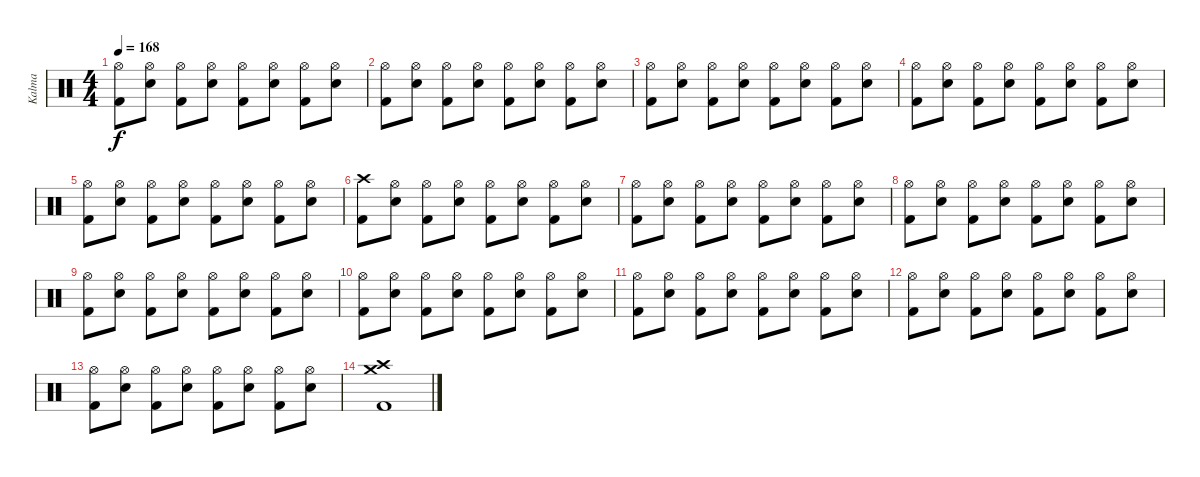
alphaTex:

\track ("Kalma" "Kalma") {instrument percussion}
\staff {score}
\articulation defaults
\ts (4 4)
\tempo 168
\clef neutral
\ks c
("Hi-Hat (open)" "Kick (hit) 2").8{dy f} ("Hi-Hat (open)" "Snare (hit) 2").8 ("Hi-Hat (open)" "Kick (hit) 2").8 ("Hi-Hat (open)" "Snare (hit) 2").8 ("Hi-Hat (open)" "Kick (hit) 2").8 ("Hi-Hat (open)" "Snare (hit) 2").8 ("Hi-Hat (open)" "Kick (hit) 2").8 ("Hi-Hat (open)" "Snare (hit) 2").8 |
("Hi-Hat (open)" "Kick (hit) 2").8 ("Hi-Hat (open)" "Snare (hit) 2").8 ("Hi-Hat (open)" "Kick (hit) 2").8 ("Hi-Hat (open)" "Snare (hit) 2").8 ("Hi-Hat (open)" "Kick (hit) 2").8 ("Hi-Hat (open)" "Snare (hit) 2").8 ("Hi-Hat (open)" "Kick (hit) 2").8 ("Hi-Hat (open)" "Snare (hit) 2").8 |
("Hi-Hat (open)" "Kick (hit) 2").8 ("Hi-Hat (open)" "Snare (hit) 2").8 ("Hi-Hat (open)" "Kick (hit) 2").8 ("Hi-Hat (open)" "Snare (hit) 2").8 ("Hi-Hat (open)" "Kick (hit) 2").8 ("Hi-Hat (open)" "Snare (hit) 2").8 ("Hi-Hat (open)" "Kick (hit) 2").8 ("Hi-Hat (open)" "Snare (hit) 2").8 |
("Hi-Hat (open)" "Kick (hit) 2").8 ("Hi-Hat (open)" "Snare (hit) 2").8 ("Hi-Hat (open)" "Kick (hit) 2").8 ("Hi-Hat (open)" "Snare (hit) 2").8 ("Hi-Hat (open)" "Kick (hit) 2").8 ("Hi-Hat (open)" "Snare (hit) 2").8 ("Hi-Hat (open)" "Kick (hit) 2").8 ("Hi-Hat (open)" "Snare (hit) 2").8 |
("Hi-Hat (open)" "Kick (hit) 2").8 ("Hi-Hat (open)" "Snare (hit) 2").8 ("Hi-Hat (open)" "Kick (hit) 2").8 ("Hi-Hat (open)" "Snare (hit) 2").8 ("Hi-Hat (open)" "Kick (hit) 2").8 ("Hi-Hat (open)" "Snare (hit) 2").8 ("Hi-Hat (open)" "Kick (hit) 2").8 ("Hi-Hat (open)" "Snare (hit) 2").8 |
("Crash high (hit)" "Kick (hit) 2").8 ("Hi-Hat (open)" "Snare (hit) 2").8 ("Hi-Hat (open)" "Kick (hit) 2").8 ("Hi-Hat (open)" "Snare (hit) 2").8 ("Hi-Hat (open)" "Kick (hit) 2").8 ("Hi-Hat (open)" "Snare (hit) 2").8 ("Hi-Hat (open)" "Kick (hit) 2").8 ("Hi-Hat (open)" "Snare (hit) 2").8 |
("Hi-Hat (open)" "Kick (hit) 2").8 ("Hi-Hat (open)" "Snare (hit) 2").8 ("Hi-Hat (open)" "Kick (hit) 2").8 ("Hi-Hat (open)" "Snare (hit) 2").8 ("Hi-Hat (open)" "Kick (hit) 2").8 ("Hi-Hat (open)" "Snare (hit) 2").8 ("Hi-Hat (open)" "Kick (hit) 2").8 ("Hi-Hat (open)" "Snare (hit) 2").8 |
("Hi-Hat (open)" "Kick (hit) 2").8 ("Hi-Hat (open)" "Snare (hit) 2").8 ("Hi-Hat (open)" "Kick (hit) 2").8 ("Hi-Hat (open)" "Snare (hit) 2").8 ("Hi-Hat (open)" "Kick (hit) 2").8 ("Hi-Hat (open)" "Snare (hit) 2").8 ("Hi-Hat (open)" "Kick (hit) 2").8 ("Hi-Hat (open)" "Snare (hit) 2").8 |
("Hi-Hat (open)" "Kick (hit) 2").8 ("Hi-Hat (open)" "Snare (hit) 2").8 ("Hi-Hat (open)" "Kick (hit) 2").8 ("Hi-Hat (open)" "Snare (hit) 2").8 ("Hi-Hat (open)" "Kick (hit) 2").8 ("Hi-Hat (open)" "Snare (hit) 2").8 ("Hi-Hat (open)" "Kick (hit) 2").8 ("Hi-Hat (open)" "Snare (hit) 2").8 |
("Hi-Hat (open)" "Kick (hit) 2").8 ("Hi-Hat (open)" "Snare (hit) 2").8 ("Hi-Hat (open)" "Kick (hit) 2").8 ("Hi-Hat (open)" "Snare (hit) 2").8 ("Hi-Hat (open)" "Kick (hit) 2").8 ("Hi-Hat (open)" "Snare (hit) 2").8 ("Hi-Hat (open)" "Kick (hit) 2").8 ("Hi-Hat (open)" "Snare (hit) 2").8 |
("Hi-Hat (open)" "Kick (hit) 2").8 ("Hi-Hat (open)" "Snare (hit) 2").8 ("Hi-Hat (open)" "Kick (hit) 2").8 ("Hi-Hat (open)" "Snare (hit) 2").8 ("Hi-Hat (open)" "Kick (hit) 2").8 ("Hi-Hat (open)" "Snare (hit) 2").8 ("Hi-Hat (open)" "Kick (hit) 2").8 ("Hi-Hat (open)" "Snare (hit) 2").8 |
("Hi-Hat (open)" "Kick (hit) 2").8 ("Hi-Hat (open)" "Snare (hit) 2").8 ("Hi-Hat (open)" "Kick (hit) 2").8 ("Hi-Hat (open)" "Snare (hit) 2").8 ("Hi-Hat (open)" "Kick (hit) 2").8 ("Hi-Hat (open)" "Snare (hit) 2").8 ("Hi-Hat (open)" "Kick (hit) 2").8 ("Hi-Hat (open)" "Snare (hit) 2").8 |
("Hi-Hat (open)" "Kick (hit) 2").8 ("Hi-Hat (open)" "Snare (hit) 2").8 ("Hi-Hat (open)" "Kick (hit) 2").8 ("Hi-Hat (open)" "Snare (hit) 2").8 ("Hi-Hat (open)" "Kick (hit) 2").8 ("Hi-Hat (open)" "Snare (hit) 2").8 ("Hi-Hat (open)" "Kick (hit) 2").8 ("Hi-Hat (open)" "Snare (hit) 2").8 |
("Crash medium (hit)" "Crash high (hit)" "Kick (hit) 2").1
